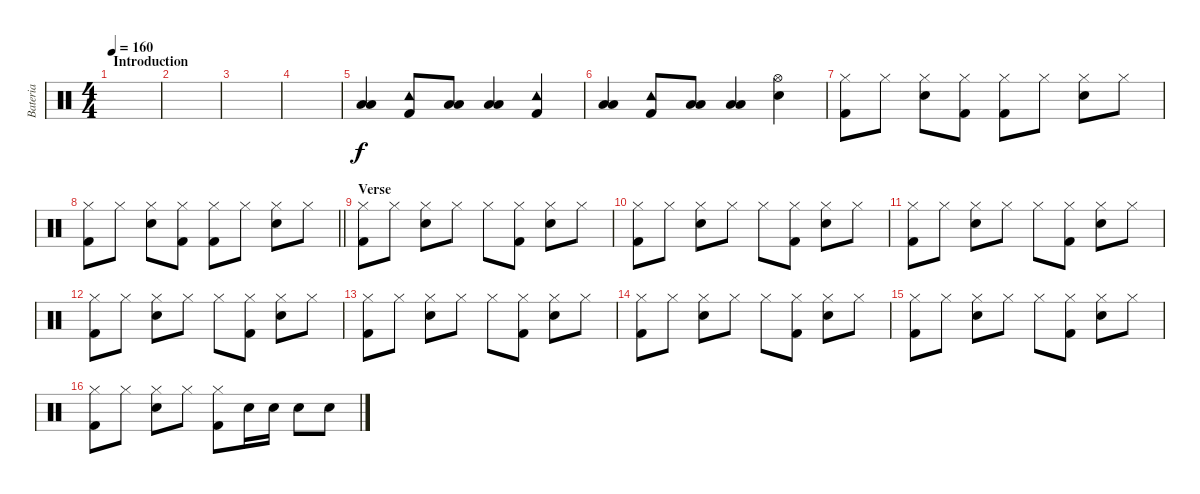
\track ("Bateria" "Bateria") {instrument percussion}
\staff {score}
\articulation defaults
\ts (4 4)
\section ("" "Introduction")
\tempo 160
\clef neutral
\ks c
|
|
|
|
("Low Tom (hit)" "Low Floor Tom (hit)").4 ("Tambourine (hit)" "Kick (hit) 2").8 ("Low Tom (hit)" "Low Floor Tom (hit)").8 ("Low Tom (hit)" "Low Floor Tom (hit)").4 ("Tambourine (hit)" "Kick (hit) 2").4 |
("Low Tom (hit)" "Low Floor Tom (hit)").4 ("Tambourine (hit)" "Kick (hit) 2").8 ("Low Tom (hit)" "Low Floor Tom (hit)").8 ("Low Tom (hit)" "Low Floor Tom (hit)").4 ("Hi-Hat (open)" "Electric Snare (hit)").4 |
("Hi-Hat (closed)" "Kick (hit) 2").8 "Hi-Hat (closed)".8 ("Hi-Hat (closed)" "Electric Snare (hit)").8 ("Hi-Hat (closed)" "Kick (hit) 2").8 ("Hi-Hat (closed)" "Kick (hit) 2").8 "Hi-Hat (closed)".8 ("Hi-Hat (closed)" "Electric Snare (hit)").8 "Hi-Hat (closed)".8 |
\barLineRight lightlight
("Hi-Hat (closed)" "Kick (hit) 2").8 "Hi-Hat (closed)".8 ("Hi-Hat (closed)" "Electric Snare (hit)").8 ("Hi-Hat (closed)" "Kick (hit) 2").8 ("Hi-Hat (closed)" "Kick (hit) 2").8 "Hi-Hat (closed)".8 ("Hi-Hat (closed)" "Electric Snare (hit)").8 "Hi-Hat (closed)".8 |
\section ("" "Verse")
("Hi-Hat (closed)" "Kick (hit) 2").8 "Hi-Hat (closed)".8 ("Hi-Hat (closed)" "Electric Snare (hit)").8 "Hi-Hat (closed)".8 "Hi-Hat (closed)".8 ("Hi-Hat (closed)" "Kick (hit) 2").8 ("Hi-Hat (closed)" "Electric Snare (hit)").8 "Hi-Hat (closed)".8 |
("Hi-Hat (closed)" "Kick (hit) 2").8 "Hi-Hat (closed)".8 ("Hi-Hat (closed)" "Electric Snare (hit)").8 "Hi-Hat (closed)".8 "Hi-Hat (closed)".8 ("Hi-Hat (closed)" "Kick (hit) 2").8 ("Hi-Hat (closed)" "Electric Snare (hit)").8 "Hi-Hat (closed)".8 |
("Hi-Hat (closed)" "Kick (hit) 2").8 "Hi-Hat (closed)".8 ("Hi-Hat (closed)" "Electric Snare (hit)").8 "Hi-Hat (closed)".8 "Hi-Hat (closed)".8 ("Hi-Hat (closed)" "Kick (hit) 2").8 ("Hi-Hat (closed)" "Electric Snare (hit)").8 "Hi-Hat (closed)".8 |
("Hi-Hat (closed)" "Kick (hit) 2").8 "Hi-Hat (closed)".8 ("Hi-Hat (closed)" "Electric Snare (hit)").8 "Hi-Hat (closed)".8 "Hi-Hat (closed)".8 ("Hi-Hat (closed)" "Kick (hit) 2").8 ("Hi-Hat (closed)" "Electric Snare (hit)").8 "Hi-Hat (closed)".8 |
("Hi-Hat (closed)" "Kick (hit) 2").8 "Hi-Hat (closed)".8 ("Hi-Hat (closed)" "Electric Snare (hit)").8 "Hi-Hat (closed)".8 "Hi-Hat (closed)".8 ("Hi-Hat (closed)" "Kick (hit) 2").8 ("Hi-Hat (closed)" "Electric Snare (hit)").8 "Hi-Hat (closed)".8 |
("Hi-Hat (closed)" "Kick (hit) 2").8 "Hi-Hat (closed)".8 ("Hi-Hat (closed)" "Electric Snare (hit)").8 "Hi-Hat (closed)".8 "Hi-Hat (closed)".8 ("Hi-Hat (closed)" "Kick (hit) 2").8 ("Hi-Hat (closed)" "Electric Snare (hit)").8 "Hi-Hat (closed)".8 |
("Hi-Hat (closed)" "Kick (hit) 2").8 "Hi-Hat (closed)".8 ("Hi-Hat (closed)" "Electric Snare (hit)").8 "Hi-Hat (closed)".8 "Hi-Hat (closed)".8 ("Hi-Hat (closed)" "Kick (hit) 2").8 ("Hi-Hat (closed)" "Electric Snare (hit)").8 "Hi-Hat (closed)".8 |
("Hi-Hat (closed)" "Kick (hit) 2").8 "Hi-Hat (closed)".8 ("Hi-Hat (closed)" "Electric Snare (hit)").8 "Hi-Hat (closed)".8 ("Hi-Hat (closed)" "Kick (hit) 2").8 "Electric Snare (hit)".16 "Electric Snare (hit)".16 "Electric Snare (hit)".8 "Electric Snare (hit)".8
